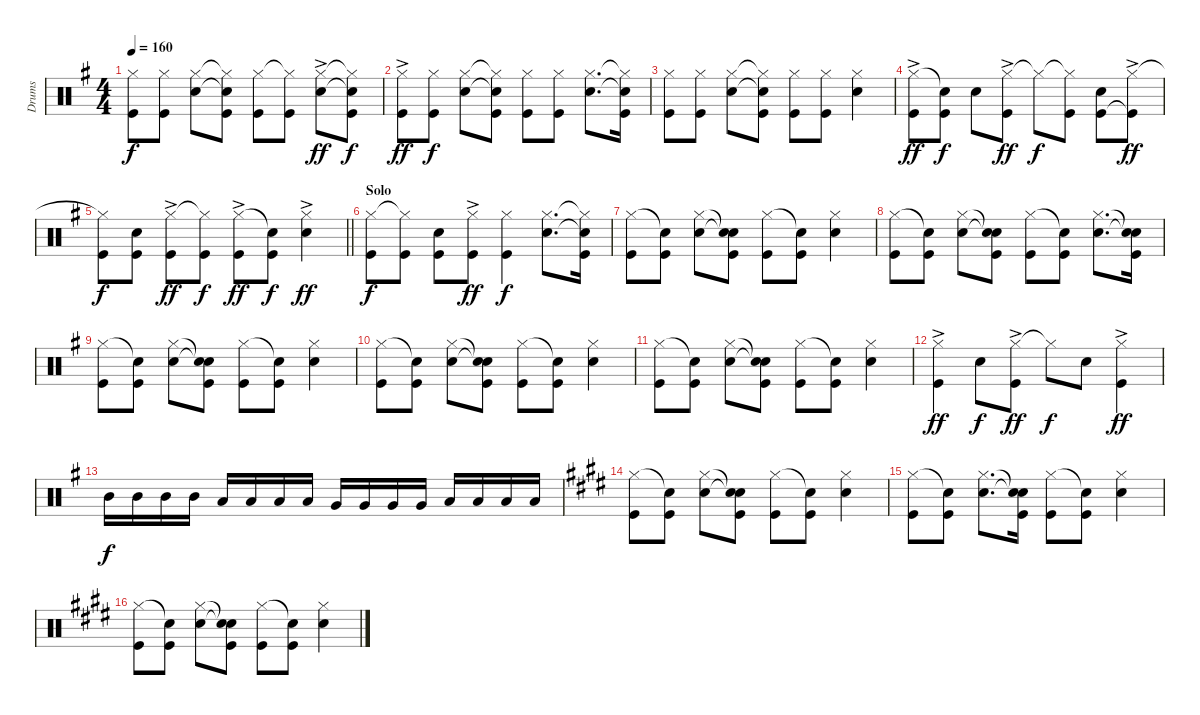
\track ("Drums" "Drums") {instrument percussion}
\staff {score}
\articulation defaults
\ts (4 4)
\tempo 160
\clef neutral
\ks g
("Hi-Hat (closed)" "Kick (hit)").8{dy f} ("Hi-Hat (closed)" "Kick (hit)").8 ("Hi-Hat (closed)" "Snare (hit) 2").8 ("Hi-Hat (closed)"{t} "Snare (hit)"{t} "Kick (hit)").8 ("Hi-Hat (closed)" "Kick (hit)").8 ("Hi-Hat (closed)"{t} "Kick (hit)").8 ("Hi-Hat (closed)"{ac} "Snare (hit) 2").8{dy ff} ("Hi-Hat (closed)"{t} "Snare (hit) 2"{t} "Kick (hit)").8{dy f} |
("Hi-Hat (closed)"{ac} "Kick (hit)").8{dy ff} ("Hi-Hat (closed)" "Kick (hit)").8{dy f} ("Hi-Hat (closed)" "Snare (hit) 2").8 ("Hi-Hat (closed)"{t} "Snare (hit) 2"{t} "Kick (hit)").8 ("Hi-Hat (closed)" "Kick (hit)").8 ("Hi-Hat (closed)" "Kick (hit)").8 ("Hi-Hat (closed)" "Snare (hit) 2").8{d} ("Hi-Hat (closed)"{t} "Snare (hit) 2"{t} "Kick (hit)").16 |
("Hi-Hat (closed)" "Kick (hit)").8 ("Hi-Hat (closed)" "Kick (hit)").8 ("Hi-Hat (closed)" "Snare (hit) 2").8 ("Hi-Hat (closed)"{t} "Snare (hit) 2"{t} "Kick (hit)").8 ("Hi-Hat (closed)" "Kick (hit)").8 ("Hi-Hat (closed)" "Kick (hit)").8 ("Hi-Hat (closed)" "Snare (hit) 2").4 |
("Hi-Hat (closed)"{ac} "Kick (hit)").8{dy ff} ("Snare (hit)"{t} "Kick (hit)").8{dy f} "Snare (hit) 2".8 ("Hi-Hat (closed)"{ac} "Kick (hit)").8{dy ff} "Hi-Hat (closed)"{t}.8{dy f} ("Hi-Hat (closed)"{t} "Kick (hit)").8 ("Snare (hit) 2" "Kick (hit)").8 ("Hi-Hat (closed)"{ac} "Kick (hit)"{t}).8{dy ff} |
\barLineRight lightlight
("Hi-Hat (closed)"{t} "Kick (hit)").8{dy f} ("Snare (hit) 2" "Kick (hit)").8 ("Hi-Hat (closed)"{ac} "Kick (hit)").8{dy ff} ("Hi-Hat (closed)"{t} "Kick (hit)").8{dy f} ("Hi-Hat (closed)"{ac} "Kick (hit)").8{dy ff} ("Snare (hit)"{t} "Kick (hit)").8{dy f} ("Hi-Hat (closed)"{ac} "Snare (hit) 2").4{dy ff} |
\section ("" "Solo")
("Hi-Hat (closed)" "Kick (hit)").8{dy f} ("Hi-Hat (closed)"{t} "Kick (hit)").8 ("Snare (hit) 2" "Kick (hit)").8 ("Hi-Hat (closed)"{ac} "Kick (hit)").8{dy ff} ("Hi-Hat (closed)" "Kick (hit)").4{dy f} ("Hi-Hat (closed)" "Snare (hit) 2").8{d} ("Hi-Hat (closed)"{t} "Snare (hit) 2"{t} "Kick (hit)").16 |
("Hi-Hat (closed)" "Kick (hit)").8 ("Snare (hit)"{t} "Kick (hit)").8 ("Hi-Hat (closed)" "Snare (hit) 2").8 ("Snare (hit)"{t} "Snare (hit)"{t} "Kick (hit)").8 ("Hi-Hat (closed)" "Kick (hit)").8 ("Snare (hit)"{t} "Kick (hit)").8 ("Hi-Hat (closed)" "Snare (hit) 2").4 |
("Hi-Hat (closed)" "Kick (hit)").8 ("Snare (hit)"{t} "Kick (hit)").8 ("Hi-Hat (closed)" "Snare (hit) 2").8 ("Snare (hit)"{t} "Snare (hit)"{t} "Kick (hit)").8 ("Hi-Hat (closed)" "Kick (hit)").8 ("Snare (hit)"{t} "Kick (hit)").8 ("Hi-Hat (closed)" "Snare (hit) 2").8{d} ("Snare (hit)"{t} "Snare (hit)"{t} "Kick (hit)").16 |
("Hi-Hat (closed)" "Kick (hit)").8 ("Snare (hit)"{t} "Kick (hit)").8 ("Hi-Hat (closed)" "Snare (hit) 2").8 ("Snare (hit)"{t} "Snare (hit)"{t} "Kick (hit)").8 ("Hi-Hat (closed)" "Kick (hit)").8 ("Snare (hit)"{t} "Kick (hit)").8 ("Hi-Hat (closed)" "Snare (hit) 2").4 |
("Hi-Hat (closed)" "Kick (hit)").8 ("Snare (hit)"{t} "Kick (hit)").8 ("Hi-Hat (closed)" "Snare (hit) 2").8 ("Snare (hit)"{t} "Snare (hit)"{t} "Kick (hit)").8 ("Hi-Hat (closed)" "Kick (hit)").8 ("Snare (hit)"{t} "Kick (hit)").8 ("Hi-Hat (closed)" "Snare (hit) 2").4 |
("Hi-Hat (closed)" "Kick (hit)").8 ("Snare (hit)"{t} "Kick (hit)").8 ("Hi-Hat (closed)" "Snare (hit) 2").8 ("Snare (hit)"{t} "Snare (hit)"{t} "Kick (hit)").8 ("Hi-Hat (closed)" "Kick (hit)").8 ("Snare (hit)"{t} "Kick (hit)").8 ("Hi-Hat (closed)" "Snare (hit) 2").4 |
("Hi-Hat (closed)"{ac} "Kick (hit)").4{dy ff} "Snare (hit) 2".8{dy f} ("Hi-Hat (closed)"{ac} "Kick (hit)").8{dy ff} "Hi-Hat (closed)"{t}.8{dy f} "Snare (hit) 2".8 ("Hi-Hat (closed)"{ac} "Kick (hit)").4{dy ff} |
"Mid Tom (hit)".16{dy f} "Mid Tom (hit)".16 "Mid Tom (hit)".16 "Mid Tom (hit)".16 "Low Tom (hit)".16 "Low Tom (hit)".16 "Low Tom (hit)".16 "Low Tom (hit)".16 "Very Low Tom (hit)".16 "Very Low Tom (hit)".16 "Very Low Tom (hit)".16 "Very Low Tom (hit)".16 "Low Floor Tom (hit)".16 "Low Floor Tom (hit)".16 "Low Floor Tom (hit)".16 "Low Floor Tom (hit)".16 |
\ks e
("Hi-Hat (closed)" "Kick (hit)").8 ("Snare (hit)"{t} "Kick (hit)").8 ("Hi-Hat (closed)" "Snare (hit) 2").8 ("Snare (hit)"{t} "Snare (hit)"{t} "Kick (hit)").8 ("Hi-Hat (closed)" "Kick (hit)").8 ("Snare (hit)"{t} "Kick (hit)").8 ("Hi-Hat (closed)" "Snare (hit) 2").4 |
("Hi-Hat (closed)" "Kick (hit)").8 ("Snare (hit)"{t} "Kick (hit)").8 ("Hi-Hat (closed)" "Snare (hit) 2").8{d} ("Snare (hit)"{t} "Snare (hit)"{t} "Kick (hit)").16 ("Hi-Hat (closed)" "Kick (hit)").8 ("Snare (hit)"{t} "Kick (hit)").8 ("Hi-Hat (closed)" "Snare (hit) 2").4 |
("Hi-Hat (closed)" "Kick (hit)").8 ("Snare (hit)"{t} "Kick (hit)").8 ("Hi-Hat (closed)" "Snare (hit) 2").8 ("Snare (hit)"{t} "Snare (hit)"{t} "Kick (hit)").8 ("Hi-Hat (closed)" "Kick (hit)").8 ("Snare (hit)"{t} "Kick (hit)").8 ("Hi-Hat (closed)" "Snare (hit) 2").4
